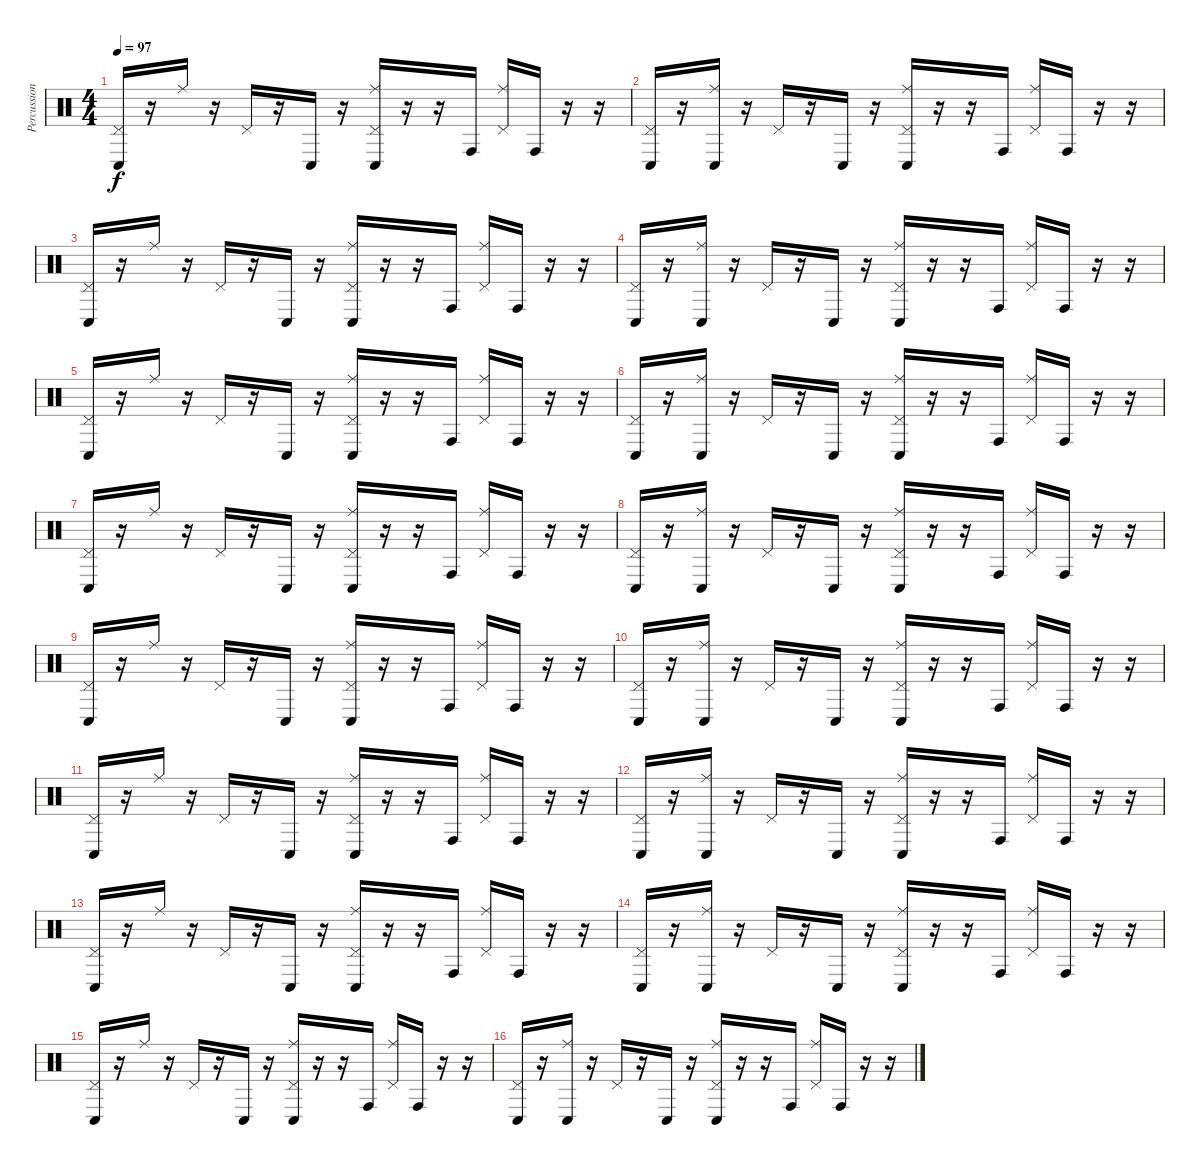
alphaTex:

\track ("Percussion" "Percussion") {instrument percussion}
\staff {score}
\articulation defaults
\ts (4 4)
\tempo 97
\clef neutral
\ks c
("Pedal Hi-Hat (hit)" "Conga low (hit)").16{dy f} r.16 "Ride (middle)".16 r.16 "Pedal Hi-Hat (hit)".16 r.16 "Conga low (hit)".16 r.16 ("Ride (middle)" "Pedal Hi-Hat (hit)" "Conga low (hit)").16 r.16 r.16 "Conga high (hit)".16 ("Ride (middle)" "Pedal Hi-Hat (hit)").16 "Conga high (hit)".16 r.16 r.16 |
("Pedal Hi-Hat (hit)" "Conga low (hit)").16 r.16 ("Ride (middle)" "Conga low (hit)").16 r.16 "Pedal Hi-Hat (hit)".16 r.16 "Conga low (hit)".16 r.16 ("Ride (middle)" "Pedal Hi-Hat (hit)" "Conga low (hit)").16 r.16 r.16 "Conga high (hit)".16 ("Ride (middle)" "Pedal Hi-Hat (hit)").16 "Conga high (hit)".16 r.16 r.16 |
("Pedal Hi-Hat (hit)" "Conga low (hit)").16 r.16 "Ride (middle)".16 r.16 "Pedal Hi-Hat (hit)".16 r.16 "Conga low (hit)".16 r.16 ("Ride (middle)" "Pedal Hi-Hat (hit)" "Conga low (hit)").16 r.16 r.16 "Conga high (hit)".16 ("Ride (middle)" "Pedal Hi-Hat (hit)").16 "Conga high (hit)".16 r.16 r.16 |
("Pedal Hi-Hat (hit)" "Conga low (hit)").16 r.16 ("Ride (middle)" "Conga low (hit)").16 r.16 "Pedal Hi-Hat (hit)".16 r.16 "Conga low (hit)".16 r.16 ("Ride (middle)" "Pedal Hi-Hat (hit)" "Conga low (hit)").16 r.16 r.16 "Conga high (hit)".16 ("Ride (middle)" "Pedal Hi-Hat (hit)").16 "Conga high (hit)".16 r.16 r.16 |
("Pedal Hi-Hat (hit)" "Conga low (hit)").16 r.16 "Ride (middle)".16 r.16 "Pedal Hi-Hat (hit)".16 r.16 "Conga low (hit)".16 r.16 ("Ride (middle)" "Pedal Hi-Hat (hit)" "Conga low (hit)").16 r.16 r.16 "Conga high (hit)".16 ("Ride (middle)" "Pedal Hi-Hat (hit)").16 "Conga high (hit)".16 r.16 r.16 |
("Pedal Hi-Hat (hit)" "Conga low (hit)").16 r.16 ("Ride (middle)" "Conga low (hit)").16 r.16 "Pedal Hi-Hat (hit)".16 r.16 "Conga low (hit)".16 r.16 ("Ride (middle)" "Pedal Hi-Hat (hit)" "Conga low (hit)").16 r.16 r.16 "Conga high (hit)".16 ("Ride (middle)" "Pedal Hi-Hat (hit)").16 "Conga high (hit)".16 r.16 r.16 |
("Pedal Hi-Hat (hit)" "Conga low (hit)").16 r.16 "Ride (middle)".16 r.16 "Pedal Hi-Hat (hit)".16 r.16 "Conga low (hit)".16 r.16 ("Ride (middle)" "Pedal Hi-Hat (hit)" "Conga low (hit)").16 r.16 r.16 "Conga high (hit)".16 ("Ride (middle)" "Pedal Hi-Hat (hit)").16 "Conga high (hit)".16 r.16 r.16 |
("Pedal Hi-Hat (hit)" "Conga low (hit)").16 r.16 ("Ride (middle)" "Conga low (hit)").16 r.16 "Pedal Hi-Hat (hit)".16 r.16 "Conga low (hit)".16 r.16 ("Ride (middle)" "Pedal Hi-Hat (hit)" "Conga low (hit)").16 r.16 r.16 "Conga high (hit)".16 ("Ride (middle)" "Pedal Hi-Hat (hit)").16 "Conga high (hit)".16 r.16 r.16 |
("Pedal Hi-Hat (hit)" "Conga low (hit)").16 r.16 "Ride (middle)".16 r.16 "Pedal Hi-Hat (hit)".16 r.16 "Conga low (hit)".16 r.16 ("Ride (middle)" "Pedal Hi-Hat (hit)" "Conga low (hit)").16 r.16 r.16 "Conga high (hit)".16 ("Ride (middle)" "Pedal Hi-Hat (hit)").16 "Conga high (hit)".16 r.16 r.16 |
("Pedal Hi-Hat (hit)" "Conga low (hit)").16 r.16 ("Ride (middle)" "Conga low (hit)").16 r.16 "Pedal Hi-Hat (hit)".16 r.16 "Conga low (hit)".16 r.16 ("Ride (middle)" "Pedal Hi-Hat (hit)" "Conga low (hit)").16 r.16 r.16 "Conga high (hit)".16 ("Ride (middle)" "Pedal Hi-Hat (hit)").16 "Conga high (hit)".16 r.16 r.16 |
("Pedal Hi-Hat (hit)" "Conga low (hit)").16 r.16 "Ride (middle)".16 r.16 "Pedal Hi-Hat (hit)".16 r.16 "Conga low (hit)".16 r.16 ("Ride (middle)" "Pedal Hi-Hat (hit)" "Conga low (hit)").16 r.16 r.16 "Conga high (hit)".16 ("Ride (middle)" "Pedal Hi-Hat (hit)").16 "Conga high (hit)".16 r.16 r.16 |
("Pedal Hi-Hat (hit)" "Conga low (hit)").16 r.16 ("Ride (middle)" "Conga low (hit)").16 r.16 "Pedal Hi-Hat (hit)".16 r.16 "Conga low (hit)".16 r.16 ("Ride (middle)" "Pedal Hi-Hat (hit)" "Conga low (hit)").16 r.16 r.16 "Conga high (hit)".16 ("Ride (middle)" "Pedal Hi-Hat (hit)").16 "Conga high (hit)".16 r.16 r.16 |
("Pedal Hi-Hat (hit)" "Conga low (hit)").16 r.16 "Ride (middle)".16 r.16 "Pedal Hi-Hat (hit)".16 r.16 "Conga low (hit)".16 r.16 ("Ride (middle)" "Pedal Hi-Hat (hit)" "Conga low (hit)").16 r.16 r.16 "Conga high (hit)".16 ("Ride (middle)" "Pedal Hi-Hat (hit)").16 "Conga high (hit)".16 r.16 r.16 |
("Pedal Hi-Hat (hit)" "Conga low (hit)").16 r.16 ("Ride (middle)" "Conga low (hit)").16 r.16 "Pedal Hi-Hat (hit)".16 r.16 "Conga low (hit)".16 r.16 ("Ride (middle)" "Pedal Hi-Hat (hit)" "Conga low (hit)").16 r.16 r.16 "Conga high (hit)".16 ("Ride (middle)" "Pedal Hi-Hat (hit)").16 "Conga high (hit)".16 r.16 r.16 |
("Pedal Hi-Hat (hit)" "Conga low (hit)").16 r.16 "Ride (middle)".16 r.16 "Pedal Hi-Hat (hit)".16 r.16 "Conga low (hit)".16 r.16 ("Ride (middle)" "Pedal Hi-Hat (hit)" "Conga low (hit)").16 r.16 r.16 "Conga high (hit)".16 ("Ride (middle)" "Pedal Hi-Hat (hit)").16 "Conga high (hit)".16 r.16 r.16 |
("Pedal Hi-Hat (hit)" "Conga low (hit)").16 r.16 ("Ride (middle)" "Conga low (hit)").16 r.16 "Pedal Hi-Hat (hit)".16 r.16 "Conga low (hit)".16 r.16 ("Ride (middle)" "Pedal Hi-Hat (hit)" "Conga low (hit)").16 r.16 r.16 "Conga high (hit)".16 ("Ride (middle)" "Pedal Hi-Hat (hit)").16 "Conga high (hit)".16 r.16 r.16
